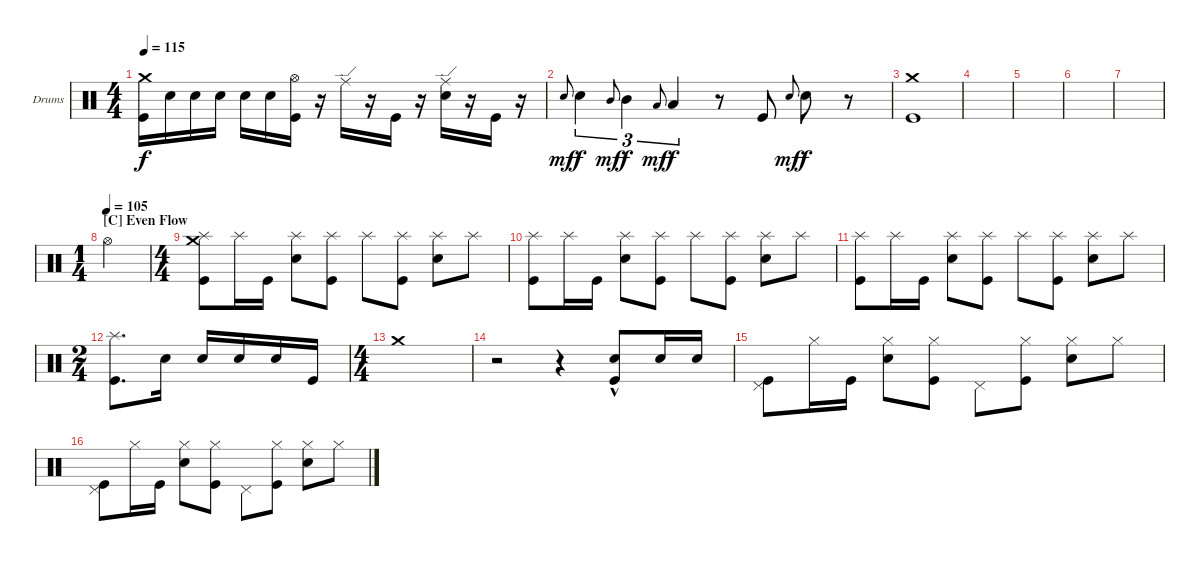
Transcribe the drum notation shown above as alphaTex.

\defaultSystemsLayout 4
\bracketExtendMode nobrackets
\firstSystemTrackNameOrientation horizontal
\otherSystemsTrackNameOrientation horizontal
\track ("Dave Krusen" "Drums") {instrument percussion}
\staff {score}
\articulation defaults
\ts (4 4)
\tempo 115
\clef neutral
\ks c
("Crash medium (hit)" "Kick (hit)").16{dy f} "Snare (hit) 2".16 "Snare (hit) 2".16 "Snare (hit) 2".16 "Snare (hit) 2".16 "Snare (hit) 2".16 ("Hi-Hat (open)" "Kick (hit)").16 r.16 "Ride (edge)".16 r.16 "Kick (hit)".16 r.16 ("Ride (edge)" "Snare (hit) 2").16 r.16 "Kick (hit)".16 r.16 |
"Snare (hit) 2".8{gr onbeat dy mf} "Snare (hit) 2".4{tu (3 2) dy f} "Mid Tom (hit)".8{gr onbeat dy mf} "Mid Tom (hit)".4{tu (3 2) dy f} "Low Tom (hit)".8{gr onbeat dy mf} "Low Tom (hit)".4{tu (3 2) dy f} r.8 "Kick (hit)".8 "Snare (hit) 2".8{gr onbeat dy mf} "Snare (hit) 2".8{dy f} r.8 |
("Crash medium (hit)" "Kick (hit)").1 |
|
|
|
|
\ts (1 4)
\section ("C" "Even Flow")
\tempo (105)
"Hi-Hat (open)".4 |
\ts (4 4)
("Crash medium (hit)" "Kick (hit)" "Splash (hit)").8 "Splash (hit)".16 "Kick (hit)".16 ("Snare (hit) 2" "Splash (hit)").8 ("Kick (hit)" "Splash (hit)").8 "Splash (hit)".8 ("Kick (hit)" "Splash (hit)").8 ("Snare (hit) 2" "Splash (hit)").8 "Splash (hit)".8 |
("Kick (hit)" "Splash (hit)").8 "Splash (hit)".16 "Kick (hit)".16 ("Snare (hit) 2" "Splash (hit)").8 ("Kick (hit)" "Splash (hit)").8 "Splash (hit)".8 ("Kick (hit)" "Splash (hit)").8 ("Snare (hit) 2" "Splash (hit)").8 "Splash (hit)".8 |
("Kick (hit)" "Splash (hit)").8 "Splash (hit)".16 "Kick (hit)".16 ("Snare (hit) 2" "Splash (hit)").8 ("Kick (hit)" "Splash (hit)").8 "Splash (hit)".8 ("Kick (hit)" "Splash (hit)").8 ("Snare (hit) 2" "Splash (hit)").8 "Splash (hit)".8 |
\ts (2 4)
("Kick (hit)" "Splash (hit)").8{d} "Snare (hit) 2".16 "Snare (hit) 2".16 "Snare (hit) 2".16 "Snare (hit) 2".16 "Kick (hit)".16 |
\ts (4 4)
"Crash medium (hit)".1 |
r.2 r.4 ("Snare (hit) 2"{hac} "Kick (hit)").8 "Snare (hit) 2".16 "Snare (hit) 2".16 |
("Kick (hit)" "Pedal Hi-Hat (hit)").8 "Hi-Hat (closed)".16 "Kick (hit)".16 ("Snare (hit) 2" "Hi-Hat (closed)").8 ("Kick (hit)" "Hi-Hat (closed)").8 "Pedal Hi-Hat (hit)".8 ("Kick (hit)" "Hi-Hat (closed)").8 ("Snare (hit) 2" "Hi-Hat (closed)").8 "Hi-Hat (closed)".8 |
("Kick (hit)" "Pedal Hi-Hat (hit)").8 "Hi-Hat (closed)".16 "Kick (hit)".16 ("Snare (hit) 2" "Hi-Hat (closed)").8 ("Kick (hit)" "Hi-Hat (closed)").8 "Pedal Hi-Hat (hit)".8 ("Kick (hit)" "Hi-Hat (closed)").8 ("Snare (hit) 2" "Hi-Hat (closed)").8 "Hi-Hat (closed)".8
